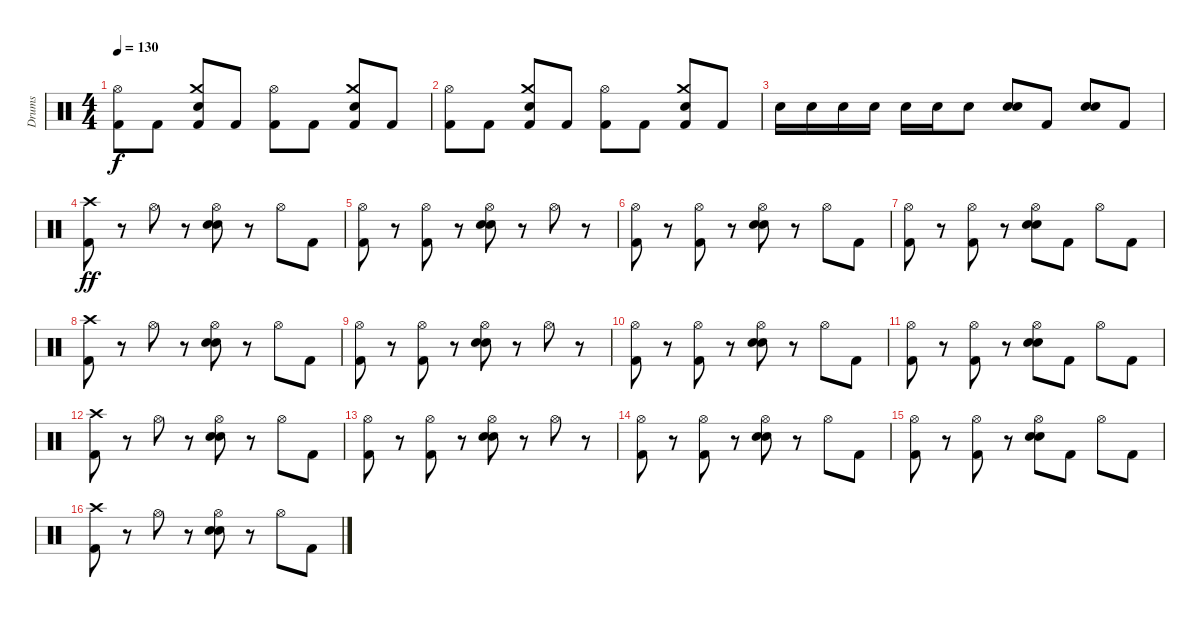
\track ("Drums" "Drums") {instrument percussion}
\staff {score}
\articulation defaults
\ts (4 4)
\tempo 130
\clef neutral
\ks c
("Hi-Hat (open)" "Kick (hit) 2").8{dy f} "Kick (hit) 2".8 ("Crash medium (hit)" "Electric Snare (hit)" "Kick (hit) 2").8 "Kick (hit) 2".8 ("Hi-Hat (open)" "Kick (hit) 2").8 "Kick (hit) 2".8 ("Crash medium (hit)" "Electric Snare (hit)" "Kick (hit) 2").8 "Kick (hit) 2".8 |
("Hi-Hat (open)" "Kick (hit) 2").8 "Kick (hit) 2".8 ("Crash medium (hit)" "Electric Snare (hit)" "Kick (hit) 2").8 "Kick (hit) 2".8 ("Hi-Hat (open)" "Kick (hit) 2").8 "Kick (hit) 2".8 ("Crash medium (hit)" "Electric Snare (hit)" "Kick (hit) 2").8 "Kick (hit) 2".8 |
"Electric Snare (hit)".16 "Electric Snare (hit)".16 "Electric Snare (hit)".16 "Electric Snare (hit)".16 "Electric Snare (hit)".16 "Electric Snare (hit)".16 "Electric Snare (hit)".8 ("Electric Snare (hit)" "Electric Snare (hit)").8{bd 240} "Kick (hit) 2".8 ("Electric Snare (hit)" "Electric Snare (hit)").8{bd 240} "Kick (hit) 2".8 |
("Crash high (hit)" "Kick (hit) 2").8{dy ff} r.8 "Hi-Hat (open)".8 r.8 ("Hi-Hat (open)" "Electric Snare (hit)" "Electric Snare (hit)").8 r.8 "Hi-Hat (open)".8 "Kick (hit) 2".8 |
("Hi-Hat (open)" "Kick (hit) 2").8 r.8 ("Hi-Hat (open)" "Kick (hit) 2").8 r.8 ("Hi-Hat (open)" "Electric Snare (hit)" "Electric Snare (hit)").8 r.8 "Hi-Hat (open)".8 r.8 |
("Hi-Hat (open)" "Kick (hit) 2").8 r.8 ("Hi-Hat (open)" "Kick (hit) 2").8 r.8 ("Hi-Hat (open)" "Electric Snare (hit)" "Electric Snare (hit)").8 r.8 "Hi-Hat (open)".8 "Kick (hit) 2".8 |
("Hi-Hat (open)" "Kick (hit) 2").8 r.8 ("Hi-Hat (open)" "Kick (hit) 2").8 r.8 ("Hi-Hat (open)" "Electric Snare (hit)" "Electric Snare (hit)").8 "Kick (hit) 2".8 "Hi-Hat (open)".8 "Kick (hit) 2".8 |
("Crash high (hit)" "Kick (hit) 2").8 r.8 "Hi-Hat (open)".8 r.8 ("Hi-Hat (open)" "Electric Snare (hit)" "Electric Snare (hit)").8 r.8 "Hi-Hat (open)".8 "Kick (hit) 2".8 |
("Hi-Hat (open)" "Kick (hit) 2").8 r.8 ("Hi-Hat (open)" "Kick (hit) 2").8 r.8 ("Hi-Hat (open)" "Electric Snare (hit)" "Electric Snare (hit)").8 r.8 "Hi-Hat (open)".8 r.8 |
("Hi-Hat (open)" "Kick (hit) 2").8 r.8 ("Hi-Hat (open)" "Kick (hit) 2").8 r.8 ("Hi-Hat (open)" "Electric Snare (hit)" "Electric Snare (hit)").8 r.8 "Hi-Hat (open)".8 "Kick (hit) 2".8 |
("Hi-Hat (open)" "Kick (hit) 2").8 r.8 ("Hi-Hat (open)" "Kick (hit) 2").8 r.8 ("Hi-Hat (open)" "Electric Snare (hit)" "Electric Snare (hit)").8 "Kick (hit) 2".8 "Hi-Hat (open)".8 "Kick (hit) 2".8 |
("Crash high (hit)" "Kick (hit) 2").8 r.8 "Hi-Hat (open)".8 r.8 ("Hi-Hat (open)" "Electric Snare (hit)" "Electric Snare (hit)").8 r.8 "Hi-Hat (open)".8 "Kick (hit) 2".8 |
("Hi-Hat (open)" "Kick (hit) 2").8 r.8 ("Hi-Hat (open)" "Kick (hit) 2").8 r.8 ("Hi-Hat (open)" "Electric Snare (hit)" "Electric Snare (hit)").8 r.8 "Hi-Hat (open)".8 r.8 |
("Hi-Hat (open)" "Kick (hit) 2").8 r.8 ("Hi-Hat (open)" "Kick (hit) 2").8 r.8 ("Hi-Hat (open)" "Electric Snare (hit)" "Electric Snare (hit)").8 r.8 "Hi-Hat (open)".8 "Kick (hit) 2".8 |
("Hi-Hat (open)" "Kick (hit) 2").8 r.8 ("Hi-Hat (open)" "Kick (hit) 2").8 r.8 ("Hi-Hat (open)" "Electric Snare (hit)" "Electric Snare (hit)").8 "Kick (hit) 2".8 "Hi-Hat (open)".8 "Kick (hit) 2".8 |
("Crash high (hit)" "Kick (hit) 2").8 r.8 "Hi-Hat (open)".8 r.8 ("Hi-Hat (open)" "Electric Snare (hit)" "Electric Snare (hit)").8 r.8 "Hi-Hat (open)".8 "Kick (hit) 2".8
